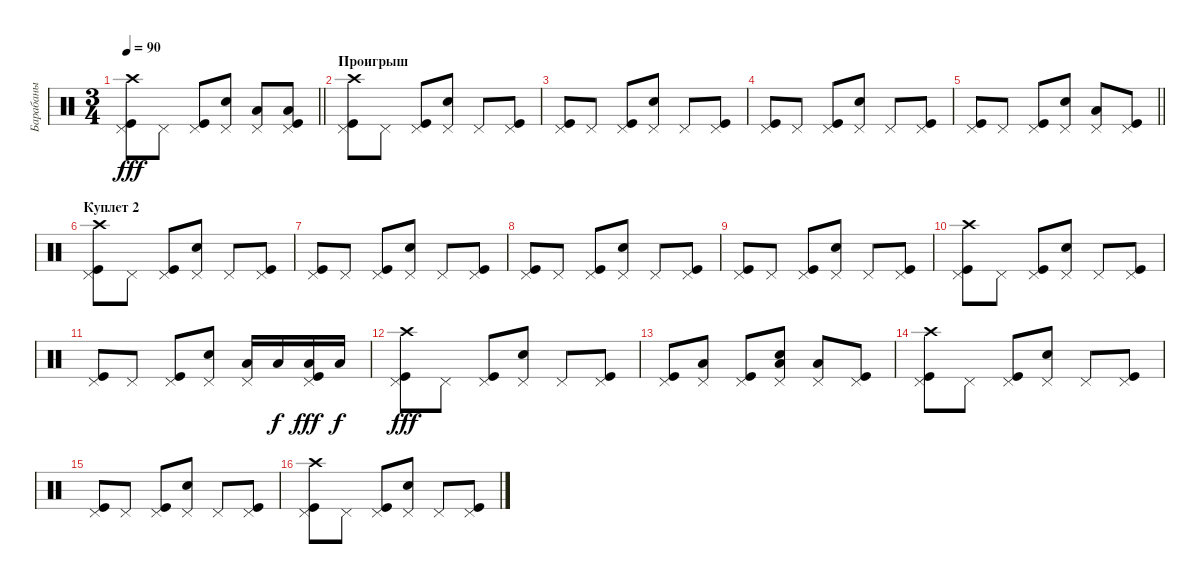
\track ("Барабаны" "Барабаны") {instrument percussion}
\staff {score}
\articulation defaults
\ts (3 4)
\tempo 90
\clef neutral
\barLineRight lightlight
\ks c
("Kick (hit)" "Pedal Hi-Hat (hit)" "Crash high (hit)").8{dy fff} "Pedal Hi-Hat (hit)".8 ("Kick (hit)" "Pedal Hi-Hat (hit)").8 ("Snare (hit) 2" "Pedal Hi-Hat (hit)").8 ("Pedal Hi-Hat (hit)" "Low Floor Tom (hit)").8 ("Kick (hit)" "Pedal Hi-Hat (hit)" "Low Floor Tom (hit)").8 |
\section ("" "Проигрыш")
("Kick (hit)" "Pedal Hi-Hat (hit)" "Crash high (hit)").8 "Pedal Hi-Hat (hit)".8 ("Kick (hit)" "Pedal Hi-Hat (hit)").8 ("Snare (hit) 2" "Pedal Hi-Hat (hit)").8 "Pedal Hi-Hat (hit)".8 ("Kick (hit)" "Pedal Hi-Hat (hit)").8 |
("Kick (hit)" "Pedal Hi-Hat (hit)").8 "Pedal Hi-Hat (hit)".8 ("Kick (hit)" "Pedal Hi-Hat (hit)").8 ("Snare (hit) 2" "Pedal Hi-Hat (hit)").8 "Pedal Hi-Hat (hit)".8 ("Kick (hit)" "Pedal Hi-Hat (hit)").8 |
("Kick (hit)" "Pedal Hi-Hat (hit)").8 "Pedal Hi-Hat (hit)".8 ("Kick (hit)" "Pedal Hi-Hat (hit)").8 ("Snare (hit) 2" "Pedal Hi-Hat (hit)").8 "Pedal Hi-Hat (hit)".8 ("Kick (hit)" "Pedal Hi-Hat (hit)").8 |
\barLineRight lightlight
("Kick (hit)" "Pedal Hi-Hat (hit)").8 "Pedal Hi-Hat (hit)".8 ("Kick (hit)" "Pedal Hi-Hat (hit)").8 ("Snare (hit) 2" "Pedal Hi-Hat (hit)").8 ("Pedal Hi-Hat (hit)" "Low Floor Tom (hit)").8 ("Kick (hit)" "Pedal Hi-Hat (hit)").8 |
\section ("" "Куплет 2")
("Kick (hit)" "Pedal Hi-Hat (hit)" "Crash high (hit)").8 "Pedal Hi-Hat (hit)".8 ("Kick (hit)" "Pedal Hi-Hat (hit)").8 ("Snare (hit) 2" "Pedal Hi-Hat (hit)").8 "Pedal Hi-Hat (hit)".8 ("Kick (hit)" "Pedal Hi-Hat (hit)").8 |
("Kick (hit)" "Pedal Hi-Hat (hit)").8 "Pedal Hi-Hat (hit)".8 ("Kick (hit)" "Pedal Hi-Hat (hit)").8 ("Snare (hit) 2" "Pedal Hi-Hat (hit)").8 "Pedal Hi-Hat (hit)".8 ("Kick (hit)" "Pedal Hi-Hat (hit)").8 |
("Kick (hit)" "Pedal Hi-Hat (hit)").8 "Pedal Hi-Hat (hit)".8 ("Kick (hit)" "Pedal Hi-Hat (hit)").8 ("Snare (hit) 2" "Pedal Hi-Hat (hit)").8 "Pedal Hi-Hat (hit)".8 ("Kick (hit)" "Pedal Hi-Hat (hit)").8 |
("Kick (hit)" "Pedal Hi-Hat (hit)").8 "Pedal Hi-Hat (hit)".8 ("Kick (hit)" "Pedal Hi-Hat (hit)").8 ("Snare (hit) 2" "Pedal Hi-Hat (hit)").8 "Pedal Hi-Hat (hit)".8 ("Kick (hit)" "Pedal Hi-Hat (hit)").8 |
("Kick (hit)" "Pedal Hi-Hat (hit)" "Crash high (hit)").8 "Pedal Hi-Hat (hit)".8 ("Kick (hit)" "Pedal Hi-Hat (hit)").8 ("Snare (hit) 2" "Pedal Hi-Hat (hit)").8 "Pedal Hi-Hat (hit)".8 ("Kick (hit)" "Pedal Hi-Hat (hit)").8 |
("Kick (hit)" "Pedal Hi-Hat (hit)").8 "Pedal Hi-Hat (hit)".8 ("Kick (hit)" "Pedal Hi-Hat (hit)").8 ("Snare (hit) 2" "Pedal Hi-Hat (hit)").8 ("Pedal Hi-Hat (hit)" "Low Tom (hit)").16 "Low Tom (hit)".16{dy f} ("Kick (hit)" "Pedal Hi-Hat (hit)" "Low Floor Tom (hit)").16{dy fff} "Low Floor Tom (hit)".16{dy f} |
("Kick (hit)" "Pedal Hi-Hat (hit)" "Crash high (hit)").8{dy fff} "Pedal Hi-Hat (hit)".8 ("Kick (hit)" "Pedal Hi-Hat (hit)").8 ("Snare (hit) 2" "Pedal Hi-Hat (hit)").8 "Pedal Hi-Hat (hit)".8 ("Kick (hit)" "Pedal Hi-Hat (hit)").8 |
("Kick (hit)" "Pedal Hi-Hat (hit)").8 ("Pedal Hi-Hat (hit)" "Low Floor Tom (hit)").8 ("Kick (hit)" "Pedal Hi-Hat (hit)").8 ("Snare (hit) 2" "Pedal Hi-Hat (hit)" "Low Floor Tom (hit)").8 ("Pedal Hi-Hat (hit)" "Low Floor Tom (hit)").8 ("Kick (hit)" "Pedal Hi-Hat (hit)").8 |
("Kick (hit)" "Pedal Hi-Hat (hit)" "Crash high (hit)").8 "Pedal Hi-Hat (hit)".8 ("Kick (hit)" "Pedal Hi-Hat (hit)").8 ("Snare (hit) 2" "Pedal Hi-Hat (hit)").8 "Pedal Hi-Hat (hit)".8 ("Kick (hit)" "Pedal Hi-Hat (hit)").8 |
("Kick (hit)" "Pedal Hi-Hat (hit)").8 "Pedal Hi-Hat (hit)".8 ("Kick (hit)" "Pedal Hi-Hat (hit)").8 ("Snare (hit) 2" "Pedal Hi-Hat (hit)").8 "Pedal Hi-Hat (hit)".8 ("Kick (hit)" "Pedal Hi-Hat (hit)").8 |
("Kick (hit)" "Pedal Hi-Hat (hit)" "Crash high (hit)").8 "Pedal Hi-Hat (hit)".8 ("Kick (hit)" "Pedal Hi-Hat (hit)").8 ("Snare (hit) 2" "Pedal Hi-Hat (hit)").8 "Pedal Hi-Hat (hit)".8 ("Kick (hit)" "Pedal Hi-Hat (hit)").8
